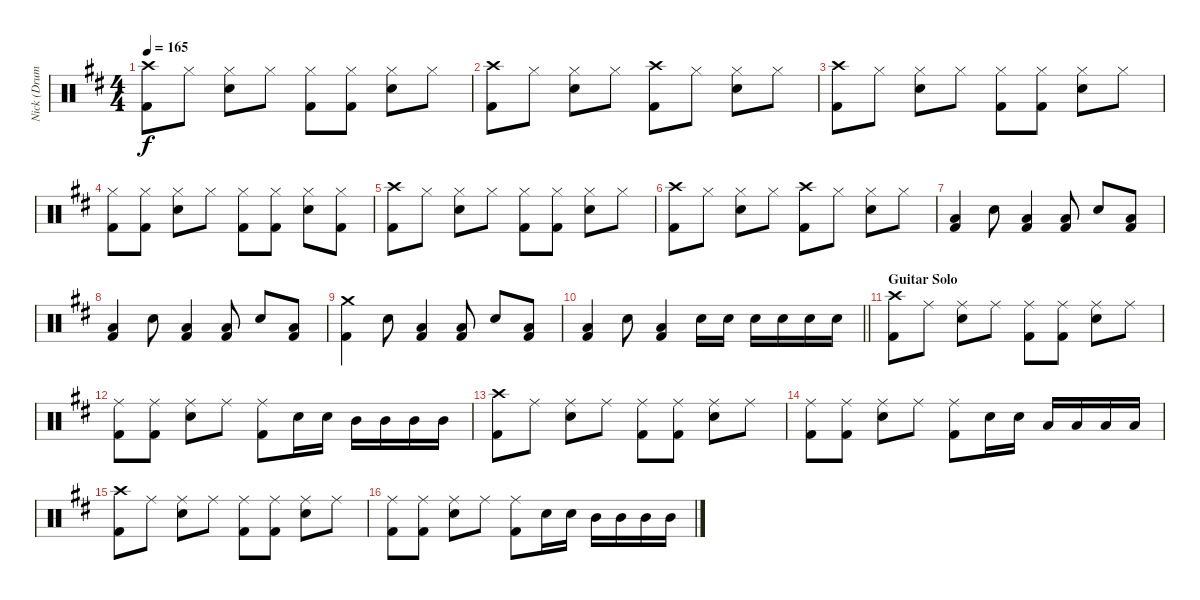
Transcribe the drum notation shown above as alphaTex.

\track ("Nick (Drums)" "Nick (Drum") {instrument percussion}
\staff {score}
\articulation defaults
\ts (4 4)
\tempo 165
\clef neutral
\ks d
("Crash high (hit)" "Kick (hit) 2").8{dy f} "Hi-Hat (closed)".8 ("Hi-Hat (closed)" "Snare (hit) 2").8 "Hi-Hat (closed)".8 ("Hi-Hat (closed)" "Kick (hit) 2").8 ("Hi-Hat (closed)" "Kick (hit) 2").8 ("Hi-Hat (closed)" "Snare (hit) 2").8 "Hi-Hat (closed)".8 |
("Crash high (hit)" "Kick (hit) 2").8 "Hi-Hat (closed)".8 ("Hi-Hat (closed)" "Snare (hit) 2").8 "Hi-Hat (closed)".8 ("Kick (hit) 2" "Crash high (hit)").8 "Hi-Hat (closed)".8 ("Hi-Hat (closed)" "Snare (hit) 2").8 "Hi-Hat (closed)".8 |
("Crash high (hit)" "Kick (hit) 2").8 "Hi-Hat (closed)".8 ("Hi-Hat (closed)" "Snare (hit) 2").8 "Hi-Hat (closed)".8 ("Hi-Hat (closed)" "Kick (hit) 2").8 ("Hi-Hat (closed)" "Kick (hit) 2").8 ("Hi-Hat (closed)" "Snare (hit) 2").8 "Hi-Hat (closed)".8 |
("Kick (hit) 2" "Hi-Hat (closed)").8 ("Hi-Hat (closed)" "Kick (hit) 2").8 ("Hi-Hat (closed)" "Snare (hit) 2").8 "Hi-Hat (closed)".8 ("Hi-Hat (closed)" "Kick (hit) 2").8 ("Hi-Hat (closed)" "Kick (hit) 2").8 ("Hi-Hat (closed)" "Snare (hit) 2").8 ("Hi-Hat (closed)" "Kick (hit) 2").8 |
("Crash high (hit)" "Kick (hit) 2").8 "Hi-Hat (closed)".8 ("Hi-Hat (closed)" "Snare (hit) 2").8 "Hi-Hat (closed)".8 ("Hi-Hat (closed)" "Kick (hit) 2").8 ("Hi-Hat (closed)" "Kick (hit) 2").8 ("Hi-Hat (closed)" "Snare (hit) 2").8 "Hi-Hat (closed)".8 |
("Crash high (hit)" "Kick (hit) 2").8 "Hi-Hat (closed)".8 ("Hi-Hat (closed)" "Snare (hit) 2").8 "Hi-Hat (closed)".8 ("Kick (hit) 2" "Crash high (hit)").8 "Hi-Hat (closed)".8 ("Hi-Hat (closed)" "Snare (hit) 2").8 "Hi-Hat (closed)".8 |
("Kick (hit) 2" "Low Tom (hit)").4 "Snare (hit) 2".8 ("Low Tom (hit)" "Kick (hit) 2").4 ("Low Tom (hit)" "Kick (hit) 2").8 "Snare (hit) 2".8 ("Low Tom (hit)" "Kick (hit) 2").8 |
("Kick (hit) 2" "Low Tom (hit)").4 "Snare (hit) 2".8 ("Low Tom (hit)" "Kick (hit) 2").4 ("Low Tom (hit)" "Kick (hit) 2").8 "Snare (hit) 2".8 ("Low Tom (hit)" "Kick (hit) 2").8 |
("Kick (hit) 2" "Crash medium (hit)").4 "Snare (hit) 2".8 ("Low Tom (hit)" "Kick (hit) 2").4 ("Low Tom (hit)" "Kick (hit) 2").8 "Snare (hit) 2".8 ("Low Tom (hit)" "Kick (hit) 2").8 |
\barLineRight lightlight
("Kick (hit) 2" "Low Tom (hit)").4 "Snare (hit) 2".8 ("Low Tom (hit)" "Kick (hit) 2").4 "Snare (hit) 2".16 "Snare (hit) 2".16 "Snare (hit) 2".16 "Snare (hit) 2".16 "Snare (hit) 2".16 "Snare (hit) 2".16 |
\section ("" "Guitar Solo")
("Crash high (hit)" "Kick (hit) 2").8 "Ride (middle)".8 ("Ride (middle)" "Snare (hit) 2").8 "Ride (middle)".8 ("Ride (middle)" "Kick (hit) 2").8 ("Ride (middle)" "Kick (hit) 2").8 ("Ride (middle)" "Snare (hit) 2").8 "Ride (middle)".8 |
("Kick (hit) 2" "Ride (middle)").8 ("Ride (middle)" "Kick (hit) 2").8 ("Ride (middle)" "Snare (hit) 2").8 "Ride (middle)".8 ("Ride (middle)" "Kick (hit) 2").8 "Snare (hit) 2".16 "Snare (hit) 2".16 "Mid Tom (hit)".16 "Mid Tom (hit)".16 "Mid Tom (hit)".16 "Mid Tom (hit)".16 |
("Crash high (hit)" "Kick (hit) 2").8 "Ride (middle)".8 ("Ride (middle)" "Snare (hit) 2").8 "Ride (middle)".8 ("Ride (middle)" "Kick (hit) 2").8 ("Ride (middle)" "Kick (hit) 2").8 ("Ride (middle)" "Snare (hit) 2").8 "Ride (middle)".8 |
("Kick (hit) 2" "Ride (middle)").8 ("Ride (middle)" "Kick (hit) 2").8 ("Ride (middle)" "Snare (hit) 2").8 "Ride (middle)".8 ("Ride (middle)" "Kick (hit) 2").8 "Snare (hit) 2".16 "Snare (hit) 2".16 "Low Tom (hit)".16 "Low Tom (hit)".16 "Low Tom (hit)".16 "Low Tom (hit)".16 |
("Crash high (hit)" "Kick (hit) 2").8 "Ride (middle)".8 ("Ride (middle)" "Snare (hit) 2").8 "Ride (middle)".8 ("Ride (middle)" "Kick (hit) 2").8 ("Ride (middle)" "Kick (hit) 2").8 ("Ride (middle)" "Snare (hit) 2").8 "Ride (middle)".8 |
("Kick (hit) 2" "Ride (middle)").8 ("Ride (middle)" "Kick (hit) 2").8 ("Ride (middle)" "Snare (hit) 2").8 "Ride (middle)".8 ("Ride (middle)" "Kick (hit) 2").8 "Snare (hit) 2".16 "Snare (hit) 2".16 "Mid Tom (hit)".16 "Mid Tom (hit)".16 "Mid Tom (hit)".16 "Mid Tom (hit)".16
